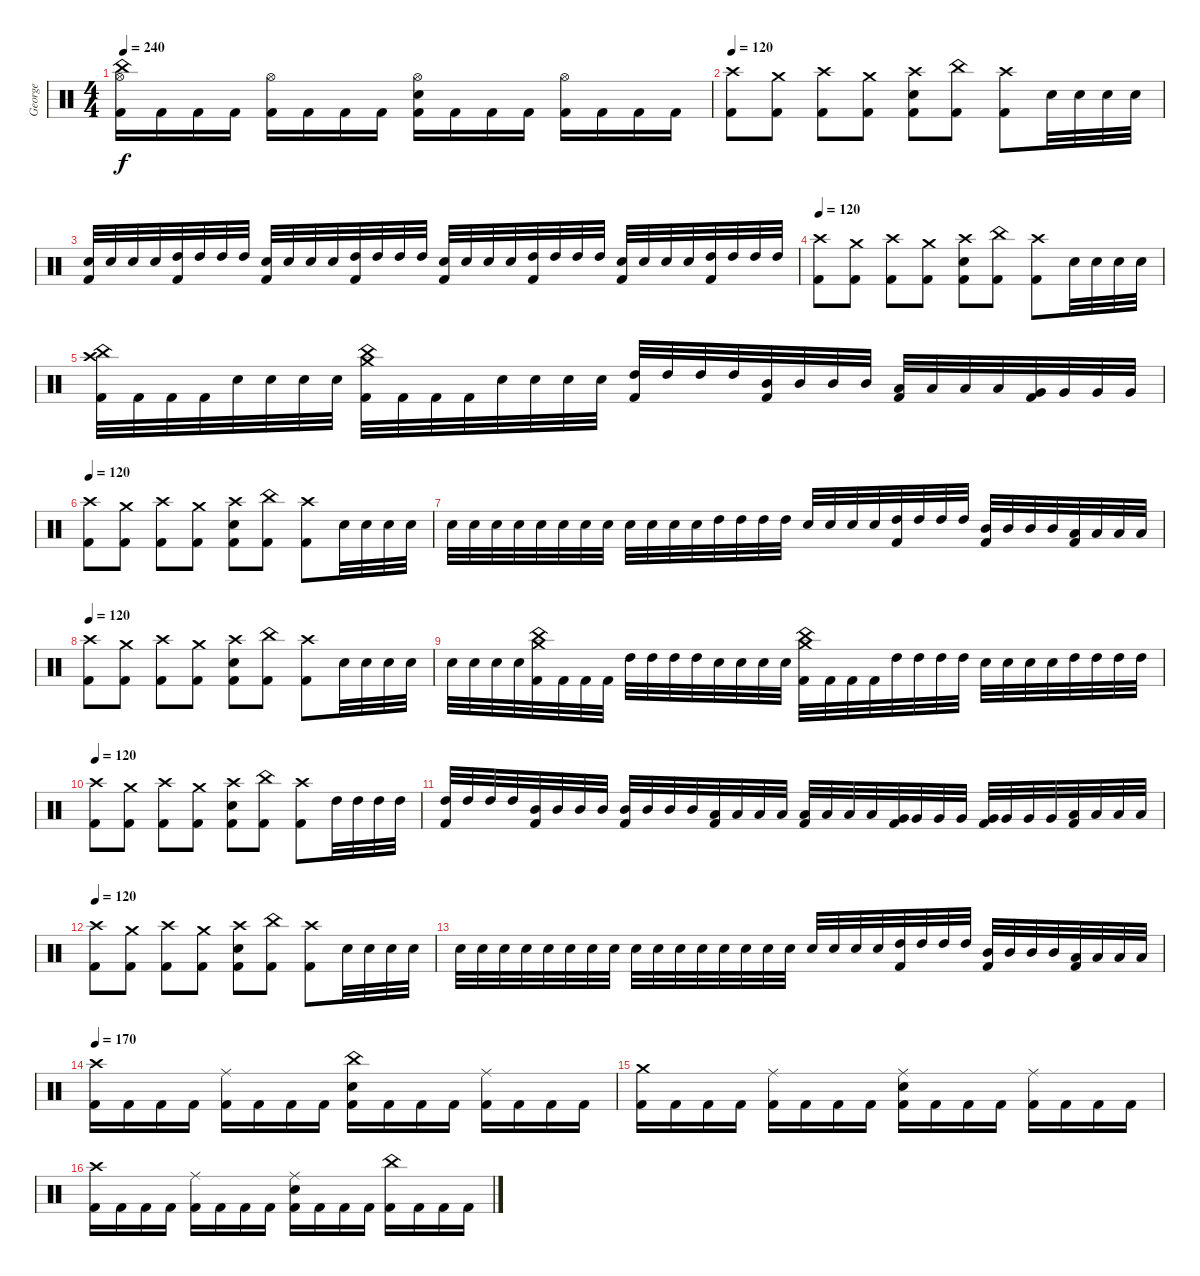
\track ("George" "George") {instrument percussion}
\staff {score}
\articulation defaults
\ts (4 4)
\tempo 240
\clef neutral
\ks c
("Hi-Hat (open)" "China (hit)" "Kick (hit) 2").16{dy f} "Kick (hit) 2".16 "Kick (hit) 2".16 "Kick (hit) 2".16 ("Hi-Hat (open)" "Kick (hit) 2").16 "Kick (hit) 2".16 "Kick (hit) 2".16 "Kick (hit) 2".16 ("Hi-Hat (open)" "Snare (hit) 2" "Kick (hit) 2").16 "Kick (hit) 2".16 "Kick (hit) 2".16 "Kick (hit) 2".16 ("Hi-Hat (open)" "Kick (hit) 2").16 "Kick (hit) 2".16 "Kick (hit) 2".16 "Kick (hit) 2".16 |
\tempo 120
("Crash high (hit)" "Kick (hit) 2").8 ("Crash medium (hit)" "Kick (hit) 2").8 ("Crash high (hit)" "Kick (hit) 2").8 ("Crash medium (hit)" "Kick (hit) 2").8 ("Crash high (hit)" "Snare (hit) 2" "Kick (hit) 2").8 ("China (hit)" "Kick (hit) 2").8 ("Crash high (hit)" "Kick (hit) 2").8 "Snare (hit) 2".32 "Snare (hit) 2".32 "Snare (hit) 2".32 "Snare (hit) 2".32 |
("Snare (hit) 2" "Kick (hit) 2").32 "Snare (hit) 2".32 "Snare (hit) 2".32 "Snare (hit) 2".32 ("High Tom (hit)" "Kick (hit) 2").32 "High Tom (hit)".32 "High Tom (hit)".32 "High Tom (hit)".32 ("Snare (hit) 2" "Kick (hit) 2").32 "Snare (hit) 2".32 "Snare (hit) 2".32 "Snare (hit) 2".32 ("High Tom (hit)" "Kick (hit) 2").32 "High Tom (hit)".32 "High Tom (hit)".32 "High Tom (hit)".32 ("Snare (hit) 2" "Kick (hit) 2").32 "Snare (hit) 2".32 "Snare (hit) 2".32 "Snare (hit) 2".32 ("High Tom (hit)" "Kick (hit) 2").32 "High Tom (hit)".32 "High Tom (hit)".32 "High Tom (hit)".32 ("Snare (hit) 2" "Kick (hit) 2").32 "Snare (hit) 2".32 "Snare (hit) 2".32 "Snare (hit) 2".32 ("High Tom (hit)" "Kick (hit) 2").32 "High Tom (hit)".32 "High Tom (hit)".32 "High Tom (hit)".32 |
\tempo 120
("Crash high (hit)" "Kick (hit) 2").8 ("Crash medium (hit)" "Kick (hit) 2").8 ("Crash high (hit)" "Kick (hit) 2").8 ("Crash medium (hit)" "Kick (hit) 2").8 ("Crash high (hit)" "Snare (hit) 2" "Kick (hit) 2").8 ("China (hit)" "Kick (hit) 2").8 ("Crash high (hit)" "Kick (hit) 2").8 "Snare (hit) 2".32 "Snare (hit) 2".32 "Snare (hit) 2".32 "Snare (hit) 2".32 |
("China (hit)" "Crash high (hit)" "Kick (hit) 2").32 "Kick (hit) 2".32 "Kick (hit) 2".32 "Kick (hit) 2".32 "Snare (hit) 2".32 "Snare (hit) 2".32 "Snare (hit) 2".32 "Snare (hit) 2".32 ("China (hit)" "Crash medium (hit)" "Kick (hit) 2").32 "Kick (hit) 2".32 "Kick (hit) 2".32 "Kick (hit) 2".32 "Snare (hit) 2".32 "Snare (hit) 2".32 "Snare (hit) 2".32 "Snare (hit) 2".32 ("High Tom (hit)" "Kick (hit) 2").32 "High Tom (hit)".32 "High Tom (hit)".32 "High Tom (hit)".32 ("Mid Tom (hit)" "Kick (hit) 2").32 "Mid Tom (hit)".32 "Mid Tom (hit)".32 "Mid Tom (hit)".32 ("Low Tom (hit)" "Kick (hit) 2").32 "Low Tom (hit)".32 "Low Tom (hit)".32 "Low Tom (hit)".32 ("Very Low Tom (hit)" "Kick (hit) 2").32 "Very Low Tom (hit)".32 "Very Low Tom (hit)".32 "Very Low Tom (hit)".32 |
\tempo 120
("Crash high (hit)" "Kick (hit) 2").8 ("Crash medium (hit)" "Kick (hit) 2").8 ("Crash high (hit)" "Kick (hit) 2").8 ("Crash medium (hit)" "Kick (hit) 2").8 ("Crash high (hit)" "Snare (hit) 2" "Kick (hit) 2").8 ("China (hit)" "Kick (hit) 2").8 ("Crash high (hit)" "Kick (hit) 2").8 "Snare (hit) 2".32 "Snare (hit) 2".32 "Snare (hit) 2".32 "Snare (hit) 2".32 |
"Snare (hit) 2".32 "Snare (hit) 2".32 "Snare (hit) 2".32 "Snare (hit) 2".32 "Snare (hit) 2".32 "Snare (hit) 2".32 "Snare (hit) 2".32 "Snare (hit) 2".32 "Snare (hit) 2".32 "Snare (hit) 2".32 "Snare (hit) 2".32 "Snare (hit) 2".32 "High Tom (hit)".32 "High Tom (hit)".32 "High Tom (hit)".32 "High Tom (hit)".32 "Snare (hit) 2".32 "Snare (hit) 2".32 "Snare (hit) 2".32 "Snare (hit) 2".32 ("High Tom (hit)" "Kick (hit) 2").32 "High Tom (hit)".32 "High Tom (hit)".32 "High Tom (hit)".32 ("Mid Tom (hit)" "Kick (hit) 2").32 "Mid Tom (hit)".32 "Mid Tom (hit)".32 "Mid Tom (hit)".32 ("Low Tom (hit)" "Kick (hit) 2").32 "Low Tom (hit)".32 "Low Tom (hit)".32 "Low Tom (hit)".32 |
\tempo 120
("Crash high (hit)" "Kick (hit) 2").8 ("Crash medium (hit)" "Kick (hit) 2").8 ("Crash high (hit)" "Kick (hit) 2").8 ("Crash medium (hit)" "Kick (hit) 2").8 ("Crash high (hit)" "Snare (hit) 2" "Kick (hit) 2").8 ("China (hit)" "Kick (hit) 2").8 ("Crash high (hit)" "Kick (hit) 2").8 "Snare (hit) 2".32 "Snare (hit) 2".32 "Snare (hit) 2".32 "Snare (hit) 2".32 |
"Snare (hit) 2".32 "Snare (hit) 2".32 "Snare (hit) 2".32 "Snare (hit) 2".32 ("China (hit)" "Crash medium (hit)" "Kick (hit) 2").32 "Kick (hit) 2".32 "Kick (hit) 2".32 "Kick (hit) 2".32 "High Tom (hit)".32 "High Tom (hit)".32 "High Tom (hit)".32 "High Tom (hit)".32 "Snare (hit) 2".32 "Snare (hit) 2".32 "Snare (hit) 2".32 "Snare (hit) 2".32 ("China (hit)" "Crash medium (hit)" "Kick (hit) 2").32 "Kick (hit) 2".32 "Kick (hit) 2".32 "Kick (hit) 2".32 "High Tom (hit)".32 "High Tom (hit)".32 "High Tom (hit)".32 "High Tom (hit)".32 "Snare (hit) 2".32 "Snare (hit) 2".32 "Snare (hit) 2".32 "Snare (hit) 2".32 "High Tom (hit)".32 "High Tom (hit)".32 "High Tom (hit)".32 "High Tom (hit)".32 |
\tempo 120
("Crash high (hit)" "Kick (hit) 2").8 ("Crash medium (hit)" "Kick (hit) 2").8 ("Crash high (hit)" "Kick (hit) 2").8 ("Crash medium (hit)" "Kick (hit) 2").8 ("Crash high (hit)" "Snare (hit) 2" "Kick (hit) 2").8 ("China (hit)" "Kick (hit) 2").8 ("Crash high (hit)" "Kick (hit) 2").8 "High Tom (hit)".32 "High Tom (hit)".32 "High Tom (hit)".32 "High Tom (hit)".32 |
("High Tom (hit)" "Kick (hit) 2").32 "High Tom (hit)".32 "High Tom (hit)".32 "High Tom (hit)".32 ("Mid Tom (hit)" "Kick (hit) 2").32 "Mid Tom (hit)".32 "Mid Tom (hit)".32 "Mid Tom (hit)".32 ("Mid Tom (hit)" "Kick (hit) 2").32 "Mid Tom (hit)".32 "Mid Tom (hit)".32 "Mid Tom (hit)".32 ("Low Tom (hit)" "Kick (hit) 2").32 "Low Tom (hit)".32 "Low Tom (hit)".32 "Low Tom (hit)".32 ("Low Tom (hit)" "Kick (hit) 2").32 "Low Tom (hit)".32 "Low Tom (hit)".32 "Low Tom (hit)".32 ("Very Low Tom (hit)" "Kick (hit) 2").32 "Very Low Tom (hit)".32 "Very Low Tom (hit)".32 "Very Low Tom (hit)".32 ("Very Low Tom (hit)" "Kick (hit) 2").32 "Very Low Tom (hit)".32 "Very Low Tom (hit)".32 "Very Low Tom (hit)".32 ("Low Floor Tom (hit)" "Kick (hit) 2").32 "Low Floor Tom (hit)".32 "Low Floor Tom (hit)".32 "Low Floor Tom (hit)".32 |
\tempo 120
("Crash high (hit)" "Kick (hit) 2").8 ("Crash medium (hit)" "Kick (hit) 2").8 ("Crash high (hit)" "Kick (hit) 2").8 ("Crash medium (hit)" "Kick (hit) 2").8 ("Crash high (hit)" "Snare (hit) 2" "Kick (hit) 2").8 ("China (hit)" "Kick (hit) 2").8 ("Crash high (hit)" "Kick (hit) 2").8 "Snare (hit) 2".32 "Snare (hit) 2".32 "Snare (hit) 2".32 "Snare (hit) 2".32 |
"Snare (hit) 2".32 "Snare (hit) 2".32 "Snare (hit) 2".32 "Snare (hit) 2".32 "Snare (hit) 2".32 "Snare (hit) 2".32 "Snare (hit) 2".32 "Snare (hit) 2".32 "Snare (hit) 2".32 "Snare (hit) 2".32 "Snare (hit) 2".32 "Snare (hit) 2".32 "Snare (hit) 2".32 "Snare (hit) 2".32 "Snare (hit) 2".32 "Snare (hit) 2".32 "Snare (hit) 2".32 "Snare (hit) 2".32 "Snare (hit) 2".32 "Snare (hit) 2".32 ("High Tom (hit)" "Kick (hit) 2").32 "High Tom (hit)".32 "High Tom (hit)".32 "High Tom (hit)".32 ("Mid Tom (hit)" "Kick (hit) 2").32 "Mid Tom (hit)".32 "Mid Tom (hit)".32 "Mid Tom (hit)".32 ("Low Tom (hit)" "Kick (hit) 2").32 "Low Tom (hit)".32 "Low Tom (hit)".32 "Low Tom (hit)".32 |
\tempo 170
("Crash high (hit)" "Kick (hit) 2").16 "Kick (hit) 2".16 "Kick (hit) 2".16 "Kick (hit) 2".16 ("Ride (middle)" "Kick (hit) 2").16 "Kick (hit) 2".16 "Kick (hit) 2".16 "Kick (hit) 2".16 ("China (hit)" "Snare (hit) 2" "Kick (hit) 2").16 "Kick (hit) 2".16 "Kick (hit) 2".16 "Kick (hit) 2".16 ("Ride (middle)" "Kick (hit) 2").16 "Kick (hit) 2".16 "Kick (hit) 2".16 "Kick (hit) 2".16 |
("Crash medium (hit)" "Kick (hit) 2").16 "Kick (hit) 2".16 "Kick (hit) 2".16 "Kick (hit) 2".16 ("Ride (middle)" "Kick (hit) 2").16 "Kick (hit) 2".16 "Kick (hit) 2".16 "Kick (hit) 2".16 ("Ride (middle)" "Snare (hit) 2" "Kick (hit) 2").16 "Kick (hit) 2".16 "Kick (hit) 2".16 "Kick (hit) 2".16 ("Ride (middle)" "Kick (hit) 2").16 "Kick (hit) 2".16 "Kick (hit) 2".16 "Kick (hit) 2".16 |
("Crash high (hit)" "Kick (hit) 2").16 "Kick (hit) 2".16 "Kick (hit) 2".16 "Kick (hit) 2".16 ("Ride (middle)" "Kick (hit) 2").16 "Kick (hit) 2".16 "Kick (hit) 2".16 "Kick (hit) 2".16 ("Ride (middle)" "Snare (hit) 2" "Kick (hit) 2").16 "Kick (hit) 2".16 "Kick (hit) 2".16 "Kick (hit) 2".16 ("China (hit)" "Kick (hit) 2").16 "Kick (hit) 2".16 "Kick (hit) 2".16 "Kick (hit) 2".16
